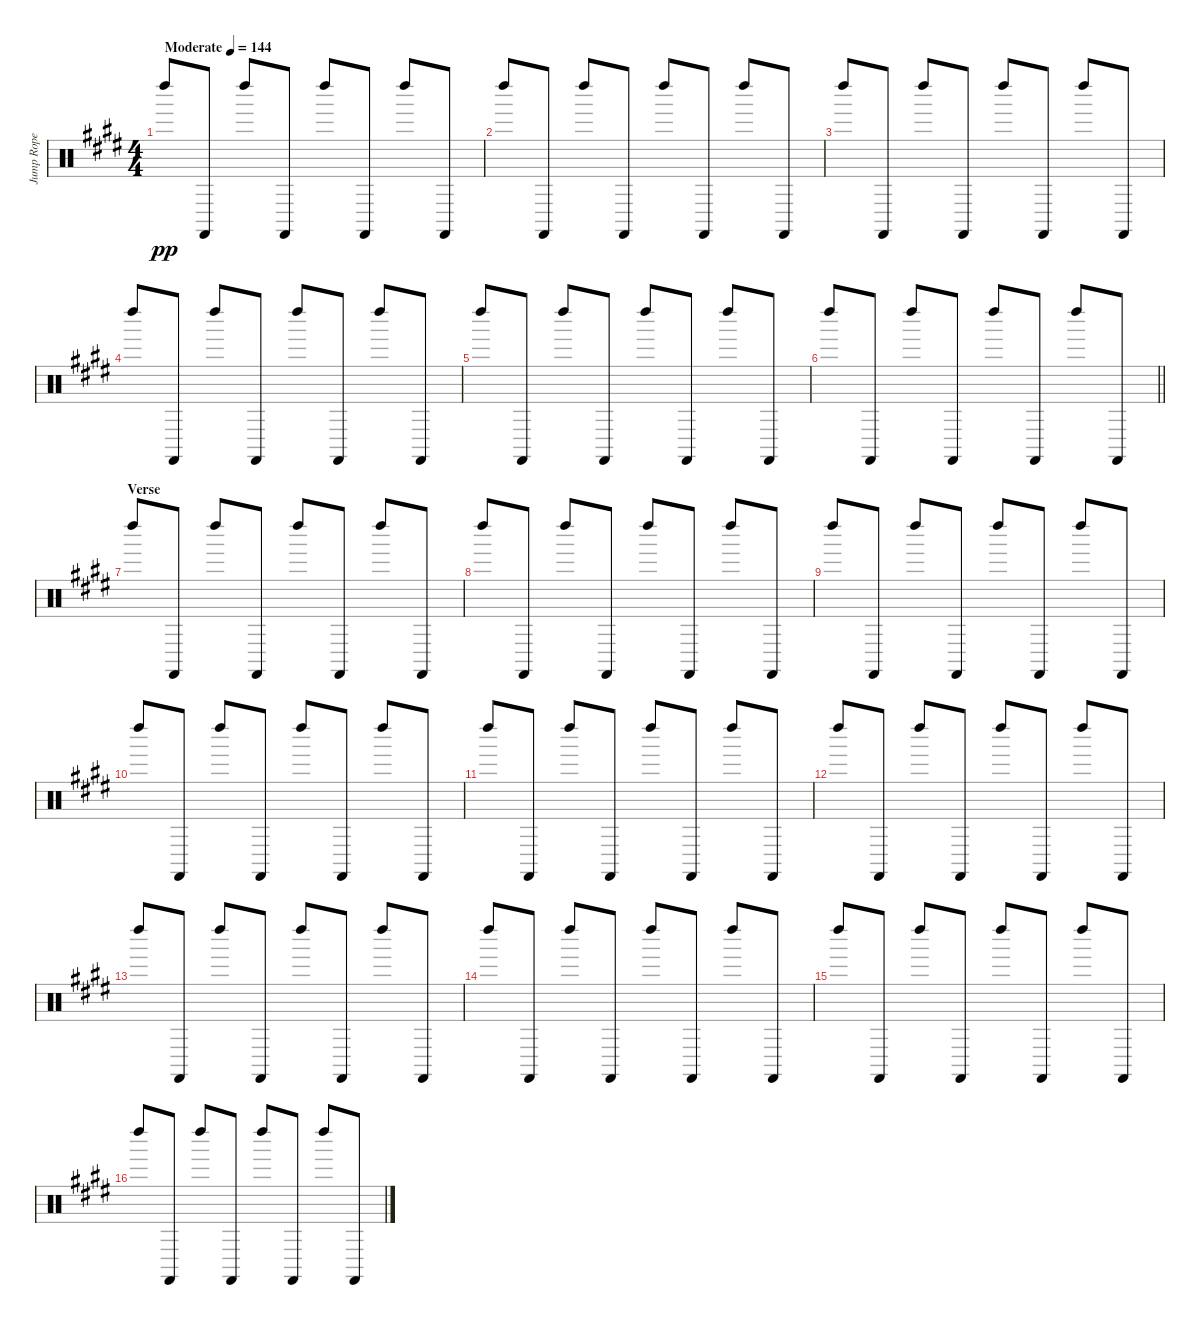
\track ("Jump Rope" "Jump Rope") {instrument percussion}
\staff {score}
\articulation defaults
\ts (4 4)
\tempo (144 "Moderate")
\clef neutral
\ks e "Left Maraca (hit)".8{dy pp volume 0} "Castanets (hit)".8{volume 14} "Left Maraca (hit)".8 "Castanets (hit)".8 "Left Maraca (hit)".8 "Castanets (hit)".8 "Left Maraca (hit)".8 "Castanets (hit)".8
|
"Left Maraca (hit)".8 "Castanets (hit)".8 "Left Maraca (hit)".8 "Castanets (hit)".8 "Left Maraca (hit)".8 "Castanets (hit)".8 "Left Maraca (hit)".8 "Castanets (hit)".8 |
"Left Maraca (hit)".8 "Castanets (hit)".8 "Left Maraca (hit)".8 "Castanets (hit)".8 "Left Maraca (hit)".8 "Castanets (hit)".8 "Left Maraca (hit)".8 "Castanets (hit)".8 |
"Left Maraca (hit)".8 "Castanets (hit)".8 "Left Maraca (hit)".8 "Castanets (hit)".8 "Left Maraca (hit)".8 "Castanets (hit)".8 "Left Maraca (hit)".8 "Castanets (hit)".8 |
"Left Maraca (hit)".8 "Castanets (hit)".8 "Left Maraca (hit)".8 "Castanets (hit)".8 "Left Maraca (hit)".8 "Castanets (hit)".8 "Left Maraca (hit)".8 "Castanets (hit)".8 |
\barLineRight lightlight "Left Maraca (hit)".8 "Castanets (hit)".8 "Left Maraca (hit)".8 "Castanets (hit)".8 "Left Maraca (hit)".8 "Castanets (hit)".8 "Left Maraca (hit)".8 "Castanets (hit)".8
|
\section ("" "Verse")
"Left Maraca (hit)".8 "Castanets (hit)".8 "Left Maraca (hit)".8 "Castanets (hit)".8 "Left Maraca (hit)".8 "Castanets (hit)".8 "Left Maraca (hit)".8 "Castanets (hit)".8 |
"Left Maraca (hit)".8 "Castanets (hit)".8 "Left Maraca (hit)".8 "Castanets (hit)".8 "Left Maraca (hit)".8 "Castanets (hit)".8 "Left Maraca (hit)".8 "Castanets (hit)".8 |
"Left Maraca (hit)".8 "Castanets (hit)".8 "Left Maraca (hit)".8 "Castanets (hit)".8 "Left Maraca (hit)".8 "Castanets (hit)".8 "Left Maraca (hit)".8 "Castanets (hit)".8 |
"Left Maraca (hit)".8 "Castanets (hit)".8 "Left Maraca (hit)".8 "Castanets (hit)".8 "Left Maraca (hit)".8 "Castanets (hit)".8 "Left Maraca (hit)".8 "Castanets (hit)".8 |
"Left Maraca (hit)".8 "Castanets (hit)".8 "Left Maraca (hit)".8 "Castanets (hit)".8 "Left Maraca (hit)".8 "Castanets (hit)".8 "Left Maraca (hit)".8 "Castanets (hit)".8 |
"Left Maraca (hit)".8 "Castanets (hit)".8 "Left Maraca (hit)".8 "Castanets (hit)".8 "Left Maraca (hit)".8 "Castanets (hit)".8 "Left Maraca (hit)".8 "Castanets (hit)".8 |
"Left Maraca (hit)".8 "Castanets (hit)".8 "Left Maraca (hit)".8 "Castanets (hit)".8 "Left Maraca (hit)".8 "Castanets (hit)".8 "Left Maraca (hit)".8 "Castanets (hit)".8 |
"Left Maraca (hit)".8 "Castanets (hit)".8 "Left Maraca (hit)".8 "Castanets (hit)".8 "Left Maraca (hit)".8 "Castanets (hit)".8 "Left Maraca (hit)".8 "Castanets (hit)".8 |
"Left Maraca (hit)".8 "Castanets (hit)".8 "Left Maraca (hit)".8 "Castanets (hit)".8 "Left Maraca (hit)".8 "Castanets (hit)".8 "Left Maraca (hit)".8 "Castanets (hit)".8 |
"Left Maraca (hit)".8 "Castanets (hit)".8 "Left Maraca (hit)".8 "Castanets (hit)".8 "Left Maraca (hit)".8 "Castanets (hit)".8 "Left Maraca (hit)".8 "Castanets (hit)".8
